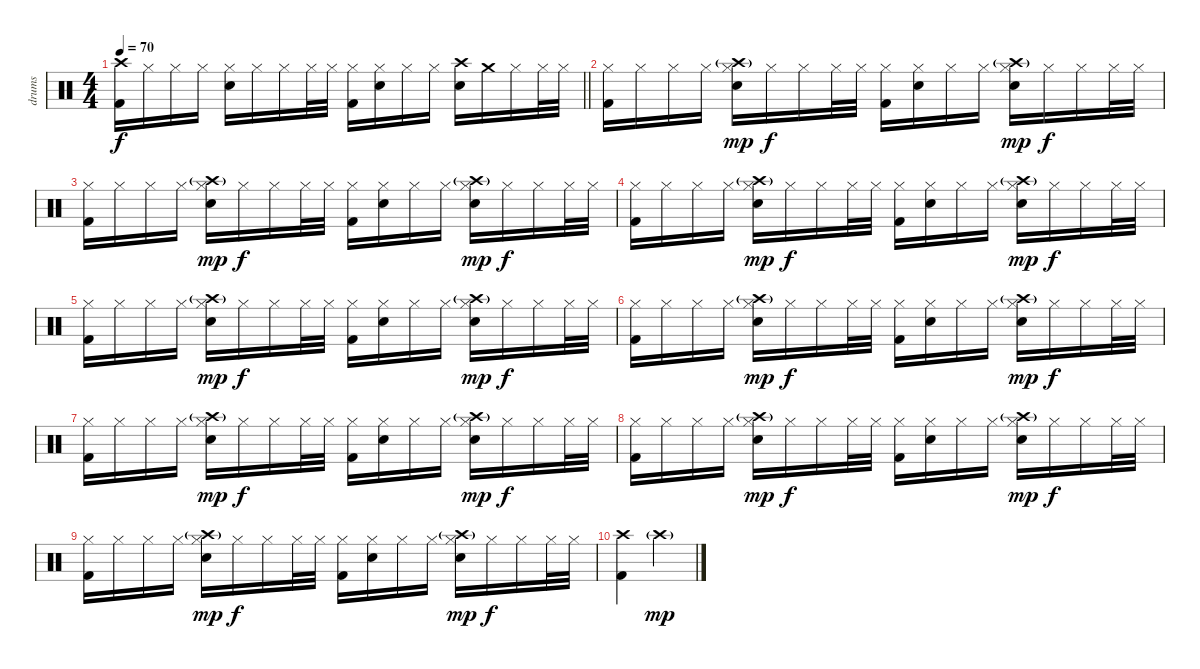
\track ("drums" "drums") {instrument percussion}
\staff {score}
\articulation defaults
\ts (4 4)
\tempo 70
\clef neutral
\barLineRight lightlight
\ks c
("Crash high (hit)" "Kick (hit) 2").16{dy f} "Hi-Hat (closed)".16 "Hi-Hat (closed)".16 "Hi-Hat (closed)".16 ("Hi-Hat (closed)" "Snare (hit) 2").16 "Hi-Hat (closed)".16 "Hi-Hat (closed)".16 "Hi-Hat (closed)".32 "Hi-Hat (closed)".32 ("Hi-Hat (closed)" "Kick (hit) 2").16 ("Hi-Hat (closed)" "Snare (hit) 2").16 "Hi-Hat (closed)".16 "Hi-Hat (closed)".16 ("Crash high (hit)" "Snare (hit) 2").16 "Crash medium (hit)".16 "Hi-Hat (closed)".16 "Hi-Hat (closed)".32 "Hi-Hat (closed)".32 |
("Hi-Hat (closed)" "Kick (hit) 2").16 "Hi-Hat (closed)".16 "Hi-Hat (closed)".16 "Hi-Hat (closed)".16 ("Hi-Hat (closed)" "Crash high (hit)"{g} "Snare (hit) 2").16{dy mp} "Hi-Hat (closed)".16{dy f} "Hi-Hat (closed)".16 "Hi-Hat (closed)".32 "Hi-Hat (closed)".32 ("Hi-Hat (closed)" "Kick (hit) 2").16 ("Hi-Hat (closed)" "Snare (hit) 2").16 "Hi-Hat (closed)".16 "Hi-Hat (closed)".16 ("Hi-Hat (closed)" "Crash high (hit)"{g} "Snare (hit) 2").16{dy mp} "Hi-Hat (closed)".16{dy f} "Hi-Hat (closed)".16 "Hi-Hat (closed)".32 "Hi-Hat (closed)".32 |
("Hi-Hat (closed)" "Kick (hit) 2").16 "Hi-Hat (closed)".16 "Hi-Hat (closed)".16 "Hi-Hat (closed)".16 ("Hi-Hat (closed)" "Crash high (hit)"{g} "Snare (hit) 2").16{dy mp} "Hi-Hat (closed)".16{dy f} "Hi-Hat (closed)".16 "Hi-Hat (closed)".32 "Hi-Hat (closed)".32 ("Hi-Hat (closed)" "Kick (hit) 2").16 ("Hi-Hat (closed)" "Snare (hit) 2").16 "Hi-Hat (closed)".16 "Hi-Hat (closed)".16 ("Hi-Hat (closed)" "Crash high (hit)"{g} "Snare (hit) 2").16{dy mp} "Hi-Hat (closed)".16{dy f} "Hi-Hat (closed)".16 "Hi-Hat (closed)".32 "Hi-Hat (closed)".32 |
("Hi-Hat (closed)" "Kick (hit) 2").16 "Hi-Hat (closed)".16 "Hi-Hat (closed)".16 "Hi-Hat (closed)".16 ("Hi-Hat (closed)" "Crash high (hit)"{g} "Snare (hit) 2").16{dy mp} "Hi-Hat (closed)".16{dy f} "Hi-Hat (closed)".16 "Hi-Hat (closed)".32 "Hi-Hat (closed)".32 ("Hi-Hat (closed)" "Kick (hit) 2").16 ("Hi-Hat (closed)" "Snare (hit) 2").16 "Hi-Hat (closed)".16 "Hi-Hat (closed)".16 ("Hi-Hat (closed)" "Crash high (hit)"{g} "Snare (hit) 2").16{dy mp} "Hi-Hat (closed)".16{dy f} "Hi-Hat (closed)".16 "Hi-Hat (closed)".32 "Hi-Hat (closed)".32 |
("Hi-Hat (closed)" "Kick (hit) 2").16 "Hi-Hat (closed)".16 "Hi-Hat (closed)".16 "Hi-Hat (closed)".16 ("Hi-Hat (closed)" "Crash high (hit)"{g} "Snare (hit) 2").16{dy mp} "Hi-Hat (closed)".16{dy f} "Hi-Hat (closed)".16 "Hi-Hat (closed)".32 "Hi-Hat (closed)".32 ("Hi-Hat (closed)" "Kick (hit) 2").16 ("Hi-Hat (closed)" "Snare (hit) 2").16 "Hi-Hat (closed)".16 "Hi-Hat (closed)".16 ("Hi-Hat (closed)" "Crash high (hit)"{g} "Snare (hit) 2").16{dy mp} "Hi-Hat (closed)".16{dy f} "Hi-Hat (closed)".16 "Hi-Hat (closed)".32 "Hi-Hat (closed)".32 |
("Hi-Hat (closed)" "Kick (hit) 2").16 "Hi-Hat (closed)".16 "Hi-Hat (closed)".16 "Hi-Hat (closed)".16 ("Hi-Hat (closed)" "Crash high (hit)"{g} "Snare (hit) 2").16{dy mp} "Hi-Hat (closed)".16{dy f} "Hi-Hat (closed)".16 "Hi-Hat (closed)".32 "Hi-Hat (closed)".32 ("Hi-Hat (closed)" "Kick (hit) 2").16 ("Hi-Hat (closed)" "Snare (hit) 2").16 "Hi-Hat (closed)".16 "Hi-Hat (closed)".16 ("Hi-Hat (closed)" "Crash high (hit)"{g} "Snare (hit) 2").16{dy mp} "Hi-Hat (closed)".16{dy f} "Hi-Hat (closed)".16 "Hi-Hat (closed)".32 "Hi-Hat (closed)".32 |
("Hi-Hat (closed)" "Kick (hit) 2").16 "Hi-Hat (closed)".16 "Hi-Hat (closed)".16 "Hi-Hat (closed)".16 ("Hi-Hat (closed)" "Crash high (hit)"{g} "Snare (hit) 2").16{dy mp} "Hi-Hat (closed)".16{dy f} "Hi-Hat (closed)".16 "Hi-Hat (closed)".32 "Hi-Hat (closed)".32 ("Hi-Hat (closed)" "Kick (hit) 2").16 ("Hi-Hat (closed)" "Snare (hit) 2").16 "Hi-Hat (closed)".16 "Hi-Hat (closed)".16 ("Hi-Hat (closed)" "Crash high (hit)"{g} "Snare (hit) 2").16{dy mp} "Hi-Hat (closed)".16{dy f} "Hi-Hat (closed)".16 "Hi-Hat (closed)".32 "Hi-Hat (closed)".32 |
("Hi-Hat (closed)" "Kick (hit) 2").16 "Hi-Hat (closed)".16 "Hi-Hat (closed)".16 "Hi-Hat (closed)".16 ("Hi-Hat (closed)" "Crash high (hit)"{g} "Snare (hit) 2").16{dy mp} "Hi-Hat (closed)".16{dy f} "Hi-Hat (closed)".16 "Hi-Hat (closed)".32 "Hi-Hat (closed)".32 ("Hi-Hat (closed)" "Kick (hit) 2").16 ("Hi-Hat (closed)" "Snare (hit) 2").16 "Hi-Hat (closed)".16 "Hi-Hat (closed)".16 ("Hi-Hat (closed)" "Crash high (hit)"{g} "Snare (hit) 2").16{dy mp} "Hi-Hat (closed)".16{dy f} "Hi-Hat (closed)".16 "Hi-Hat (closed)".32 "Hi-Hat (closed)".32 |
("Hi-Hat (closed)" "Kick (hit) 2").16 "Hi-Hat (closed)".16 "Hi-Hat (closed)".16 "Hi-Hat (closed)".16 ("Hi-Hat (closed)" "Crash high (hit)"{g} "Snare (hit) 2").16{dy mp} "Hi-Hat (closed)".16{dy f} "Hi-Hat (closed)".16 "Hi-Hat (closed)".32 "Hi-Hat (closed)".32 ("Hi-Hat (closed)" "Kick (hit) 2").16 ("Hi-Hat (closed)" "Snare (hit) 2").16 "Hi-Hat (closed)".16 "Hi-Hat (closed)".16 ("Hi-Hat (closed)" "Crash high (hit)"{g} "Snare (hit) 2").16{dy mp} "Hi-Hat (closed)".16{dy f} "Hi-Hat (closed)".16 "Hi-Hat (closed)".32 "Hi-Hat (closed)".32 |
("Crash high (hit)" "Kick (hit) 2").4 "Crash high (hit)"{g}.4{dy mp}
